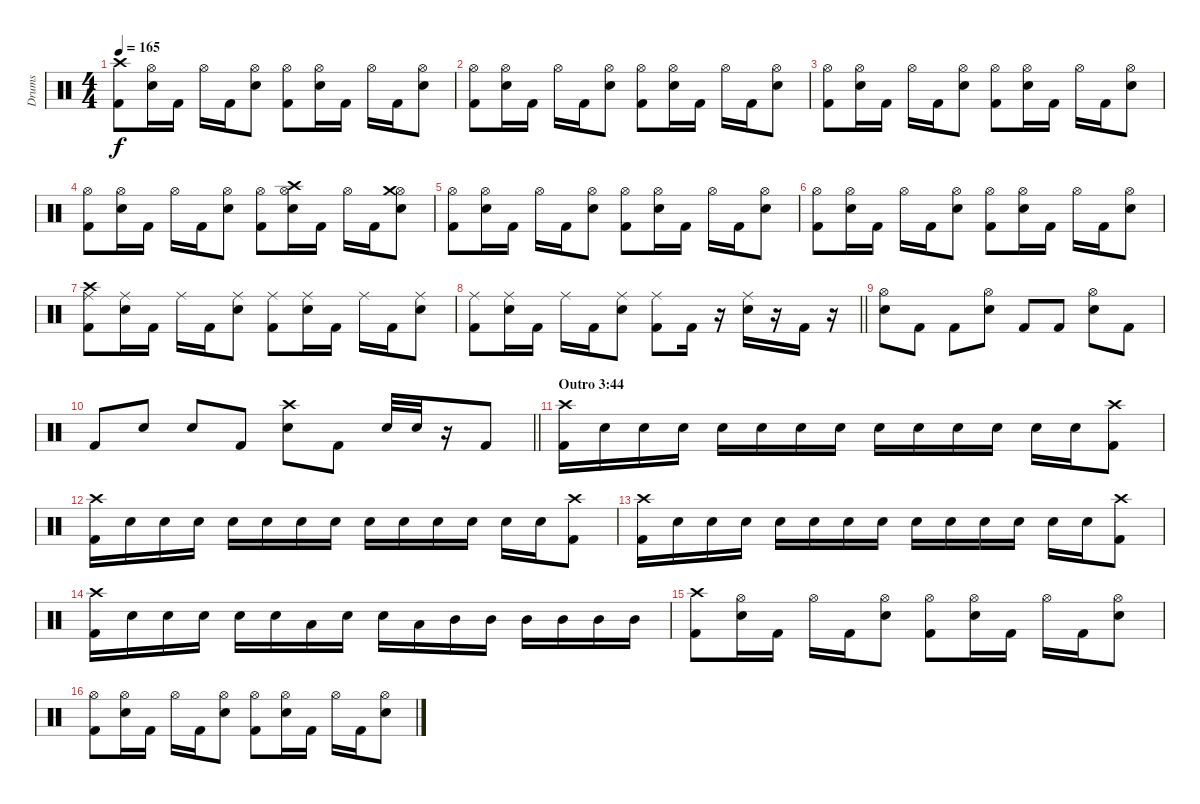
\track ("Drums" "Drums") {instrument percussion}
\staff {score}
\articulation defaults
\ts (4 4)
\tempo 165
\clef neutral
\ks c
("Crash high (hit)" "Kick (hit) 2").8{dy f} ("Hi-Hat (open)" "Electric Snare (hit)").16 "Kick (hit) 2".16 "Hi-Hat (open)".16 "Kick (hit) 2".16 ("Hi-Hat (open)" "Electric Snare (hit)").8 ("Hi-Hat (open)" "Kick (hit) 2").8 ("Hi-Hat (open)" "Electric Snare (hit)").16 "Kick (hit) 2".16 "Hi-Hat (open)".16 "Kick (hit) 2".16 ("Hi-Hat (open)" "Electric Snare (hit)").8 |
("Hi-Hat (open)" "Kick (hit) 2").8 ("Hi-Hat (open)" "Electric Snare (hit)").16 "Kick (hit) 2".16 "Hi-Hat (open)".16 "Kick (hit) 2".16 ("Hi-Hat (open)" "Electric Snare (hit)").8 ("Hi-Hat (open)" "Kick (hit) 2").8 ("Hi-Hat (open)" "Electric Snare (hit)").16 "Kick (hit) 2".16 "Hi-Hat (open)".16 "Kick (hit) 2".16 ("Hi-Hat (open)" "Electric Snare (hit)").8 |
("Hi-Hat (open)" "Kick (hit) 2").8 ("Hi-Hat (open)" "Electric Snare (hit)").16 "Kick (hit) 2".16 "Hi-Hat (open)".16 "Kick (hit) 2".16 ("Hi-Hat (open)" "Electric Snare (hit)").8 ("Hi-Hat (open)" "Kick (hit) 2").8 ("Hi-Hat (open)" "Electric Snare (hit)").16 "Kick (hit) 2".16 "Hi-Hat (open)".16 "Kick (hit) 2".16 ("Hi-Hat (open)" "Electric Snare (hit)").8 |
("Hi-Hat (open)" "Kick (hit) 2").8 ("Hi-Hat (open)" "Electric Snare (hit)").16 "Kick (hit) 2".16 "Hi-Hat (open)".16 "Kick (hit) 2".16 ("Hi-Hat (open)" "Electric Snare (hit)").8 ("Hi-Hat (open)" "Kick (hit) 2").8 ("Hi-Hat (open)" "Crash high (hit)" "Electric Snare (hit)").16 "Kick (hit) 2".16 "Hi-Hat (open)".16 "Kick (hit) 2".16 ("Hi-Hat (open)" "Crash medium (hit)" "Electric Snare (hit)").8 |
("Hi-Hat (open)" "Kick (hit) 2").8 ("Hi-Hat (open)" "Electric Snare (hit)").16 "Kick (hit) 2".16 "Hi-Hat (open)".16 "Kick (hit) 2".16 ("Hi-Hat (open)" "Electric Snare (hit)").8 ("Hi-Hat (open)" "Kick (hit) 2").8 ("Hi-Hat (open)" "Electric Snare (hit)").16 "Kick (hit) 2".16 "Hi-Hat (open)".16 "Kick (hit) 2".16 ("Hi-Hat (open)" "Electric Snare (hit)").8 |
("Hi-Hat (open)" "Kick (hit) 2").8 ("Hi-Hat (open)" "Electric Snare (hit)").16 "Kick (hit) 2".16 "Hi-Hat (open)".16 "Kick (hit) 2".16 ("Hi-Hat (open)" "Electric Snare (hit)").8 ("Hi-Hat (open)" "Kick (hit) 2").8 ("Hi-Hat (open)" "Electric Snare (hit)").16 "Kick (hit) 2".16 "Hi-Hat (open)".16 "Kick (hit) 2".16 ("Hi-Hat (open)" "Electric Snare (hit)").8 |
("Ride (middle)" "Crash high (hit)" "Kick (hit) 2").8 ("Ride (middle)" "Electric Snare (hit)").16 "Kick (hit) 2".16 "Ride (middle)".16 "Kick (hit) 2".16 ("Ride (middle)" "Electric Snare (hit)").8 ("Ride (middle)" "Kick (hit) 2").8 ("Ride (middle)" "Electric Snare (hit)").16 "Kick (hit) 2".16 "Ride (middle)".16 "Kick (hit) 2".16 ("Ride (middle)" "Electric Snare (hit)").8 |
\barLineRight lightlight
("Ride (middle)" "Kick (hit) 2").8 ("Ride (middle)" "Electric Snare (hit)").16 "Kick (hit) 2".16 "Ride (middle)".16 "Kick (hit) 2".16 ("Ride (middle)" "Electric Snare (hit)").8 ("Ride (middle)" "Kick (hit) 2").8 "Kick (hit) 2".16 r.16 ("Ride (middle)" "Electric Snare (hit)").16 r.16 "Kick (hit) 2".16 r.16 |
("Hi-Hat (open)" "Electric Snare (hit)").8 "Kick (hit) 2".8 "Kick (hit) 2".8 ("Hi-Hat (open)" "Electric Snare (hit)").8 "Kick (hit) 2".8 "Kick (hit) 2".8 ("Hi-Hat (open)" "Electric Snare (hit)").8 "Kick (hit) 2".8 |
\barLineRight lightlight "Kick (hit) 2".8 "Electric Snare (hit)".8 "Electric Snare (hit)".8 "Kick (hit) 2".8
("Crash high (hit)" "Electric Snare (hit)").8 "Kick (hit) 2".8 "Electric Snare (hit)".32 "Electric Snare (hit)".32 r.16 "Kick (hit) 2".8 |
\section ("" "Outro 3:44")
("Crash high (hit)" "Kick (hit) 2").16 "Electric Snare (hit)".16 "Electric Snare (hit)".16 "Electric Snare (hit)".16 "Electric Snare (hit)".16 "Electric Snare (hit)".16 "Electric Snare (hit)".16 "Electric Snare (hit)".16 "Electric Snare (hit)".16 "Electric Snare (hit)".16 "Electric Snare (hit)".16 "Electric Snare (hit)".16 "Electric Snare (hit)".16 "Electric Snare (hit)".16 ("Crash high (hit)" "Kick (hit) 2").8 |
("Crash high (hit)" "Kick (hit) 2").16 "Electric Snare (hit)".16 "Electric Snare (hit)".16 "Electric Snare (hit)".16 "Electric Snare (hit)".16 "Electric Snare (hit)".16 "Electric Snare (hit)".16 "Electric Snare (hit)".16 "Electric Snare (hit)".16 "Electric Snare (hit)".16 "Electric Snare (hit)".16 "Electric Snare (hit)".16 "Electric Snare (hit)".16 "Electric Snare (hit)".16 ("Crash high (hit)" "Kick (hit) 2").8 |
("Crash high (hit)" "Kick (hit) 2").16 "Electric Snare (hit)".16 "Electric Snare (hit)".16 "Electric Snare (hit)".16 "Electric Snare (hit)".16 "Electric Snare (hit)".16 "Electric Snare (hit)".16 "Electric Snare (hit)".16 "Electric Snare (hit)".16 "Electric Snare (hit)".16 "Electric Snare (hit)".16 "Electric Snare (hit)".16 "Electric Snare (hit)".16 "Electric Snare (hit)".16 ("Crash high (hit)" "Kick (hit) 2").8 |
("Crash high (hit)" "Kick (hit) 2").16 "Electric Snare (hit)".16 "Electric Snare (hit)".16 "Electric Snare (hit)".16 "Electric Snare (hit)".16 "Electric Snare (hit)".16 "Low Floor Tom (hit)".16 "Electric Snare (hit)".16 "Electric Snare (hit)".16 "Low Floor Tom (hit)".16 "Mid Tom (hit)".16 "Mid Tom (hit)".16 "Mid Tom (hit)".16 "Mid Tom (hit)".16 "Mid Tom (hit)".16 "Mid Tom (hit)".16 |
("Crash high (hit)" "Kick (hit) 2").8 ("Hi-Hat (open)" "Electric Snare (hit)").16 "Kick (hit) 2".16 "Hi-Hat (open)".16 "Kick (hit) 2".16 ("Hi-Hat (open)" "Electric Snare (hit)").8 ("Hi-Hat (open)" "Kick (hit) 2").8 ("Hi-Hat (open)" "Electric Snare (hit)").16 "Kick (hit) 2".16 "Hi-Hat (open)".16 "Kick (hit) 2".16 ("Hi-Hat (open)" "Electric Snare (hit)").8 |
("Hi-Hat (open)" "Kick (hit) 2").8 ("Hi-Hat (open)" "Electric Snare (hit)").16 "Kick (hit) 2".16 "Hi-Hat (open)".16 "Kick (hit) 2".16 ("Hi-Hat (open)" "Electric Snare (hit)").8 ("Hi-Hat (open)" "Kick (hit) 2").8 ("Hi-Hat (open)" "Electric Snare (hit)").16 "Kick (hit) 2".16 "Hi-Hat (open)".16 "Kick (hit) 2".16 ("Hi-Hat (open)" "Electric Snare (hit)").8
